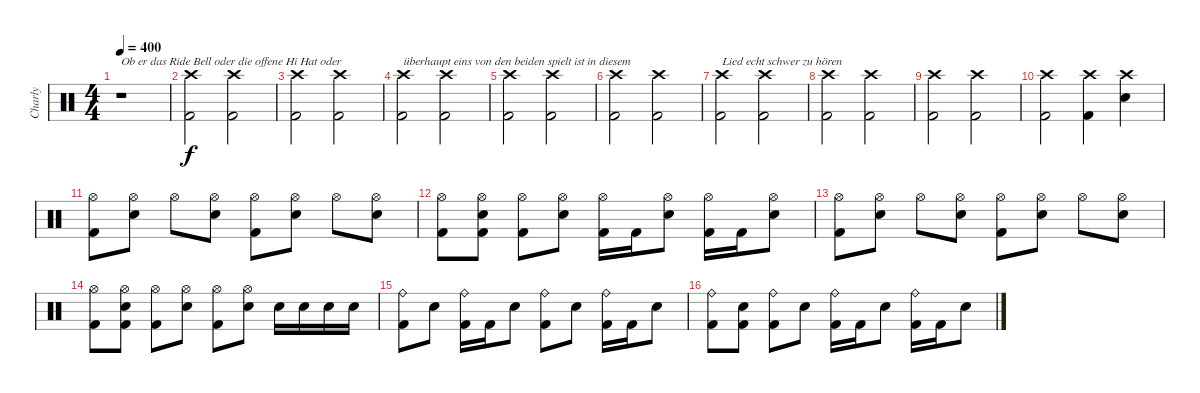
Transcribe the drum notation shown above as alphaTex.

\track ("Charly" "Charly") {instrument percussion}
\staff {score}
\articulation defaults
\ts (4 4)
\tempo 400
\clef neutral
\ks c
r.1{txt "Ob er das Ride Bell oder die offene Hi Hat oder" dy f} |
("Crash high (hit)" "Kick (hit) 2").2 ("Crash high (hit)" "Kick (hit) 2").2 |
("Crash high (hit)" "Kick (hit) 2").2 ("Crash high (hit)" "Kick (hit) 2").2 |
("Crash high (hit)" "Kick (hit) 2").2{txt "überhaupt eins von den beiden spielt ist in diesem"} ("Crash high (hit)" "Kick (hit) 2").2 |
("Crash high (hit)" "Kick (hit) 2").2 ("Crash high (hit)" "Kick (hit) 2").2 |
("Crash high (hit)" "Kick (hit) 2").2 ("Crash high (hit)" "Kick (hit) 2").2 |
("Crash high (hit)" "Kick (hit) 2").2{txt "Lied echt schwer zu hören"} ("Crash high (hit)" "Kick (hit) 2").2 |
("Crash high (hit)" "Kick (hit) 2").2 ("Crash high (hit)" "Kick (hit) 2").2 |
("Crash high (hit)" "Kick (hit) 2").2 ("Crash high (hit)" "Kick (hit) 2").2 |
("Crash high (hit)" "Kick (hit) 2").2 ("Crash high (hit)" "Kick (hit) 2").4 ("Crash high (hit)" "Electric Snare (hit)").4 |
("Hi-Hat (open)" "Kick (hit) 2").8 ("Hi-Hat (open)" "Electric Snare (hit)").8 "Hi-Hat (open)".8 ("Hi-Hat (open)" "Electric Snare (hit)").8 ("Hi-Hat (open)" "Kick (hit) 2").8 ("Hi-Hat (open)" "Electric Snare (hit)").8 "Hi-Hat (open)".8 ("Hi-Hat (open)" "Electric Snare (hit)").8 |
("Hi-Hat (open)" "Kick (hit) 2").8 ("Hi-Hat (open)" "Electric Snare (hit)" "Kick (hit) 2").8 ("Hi-Hat (open)" "Kick (hit) 2").8 ("Hi-Hat (open)" "Electric Snare (hit)").8 ("Hi-Hat (open)" "Kick (hit) 2").16 "Kick (hit) 2".16 ("Hi-Hat (open)" "Electric Snare (hit)").8 ("Hi-Hat (open)" "Kick (hit) 2").16 "Kick (hit) 2".16 ("Hi-Hat (open)" "Electric Snare (hit)").8 |
("Hi-Hat (open)" "Kick (hit) 2").8 ("Hi-Hat (open)" "Electric Snare (hit)").8 "Hi-Hat (open)".8 ("Hi-Hat (open)" "Electric Snare (hit)").8 ("Hi-Hat (open)" "Kick (hit) 2").8 ("Hi-Hat (open)" "Electric Snare (hit)").8 "Hi-Hat (open)".8 ("Hi-Hat (open)" "Electric Snare (hit)").8 |
("Hi-Hat (open)" "Kick (hit) 2").8 ("Hi-Hat (open)" "Electric Snare (hit)" "Kick (hit) 2").8 ("Hi-Hat (open)" "Kick (hit) 2").8 ("Hi-Hat (open)" "Electric Snare (hit)").8 ("Hi-Hat (open)" "Kick (hit) 2").8 ("Hi-Hat (open)" "Electric Snare (hit)").8 "Electric Snare (hit)".16 "Electric Snare (hit)".16 "Electric Snare (hit)".16 "Electric Snare (hit)".16 |
("Ride (bell)" "Kick (hit) 2").8 "Electric Snare (hit)".8 ("Ride (bell)" "Kick (hit) 2").16 "Kick (hit) 2".16 "Electric Snare (hit)".8 ("Ride (bell)" "Kick (hit) 2").8 "Electric Snare (hit)".8 ("Ride (bell)" "Kick (hit) 2").16 "Kick (hit) 2".16 "Electric Snare (hit)".8 |
("Ride (bell)" "Kick (hit) 2").8 ("Electric Snare (hit)" "Kick (hit) 2").8 ("Ride (bell)" "Kick (hit) 2").8 "Electric Snare (hit)".8 ("Ride (bell)" "Kick (hit) 2").16 "Kick (hit) 2".16 "Electric Snare (hit)".8 ("Ride (bell)" "Kick (hit) 2").16 "Kick (hit) 2".16 "Electric Snare (hit)".8
